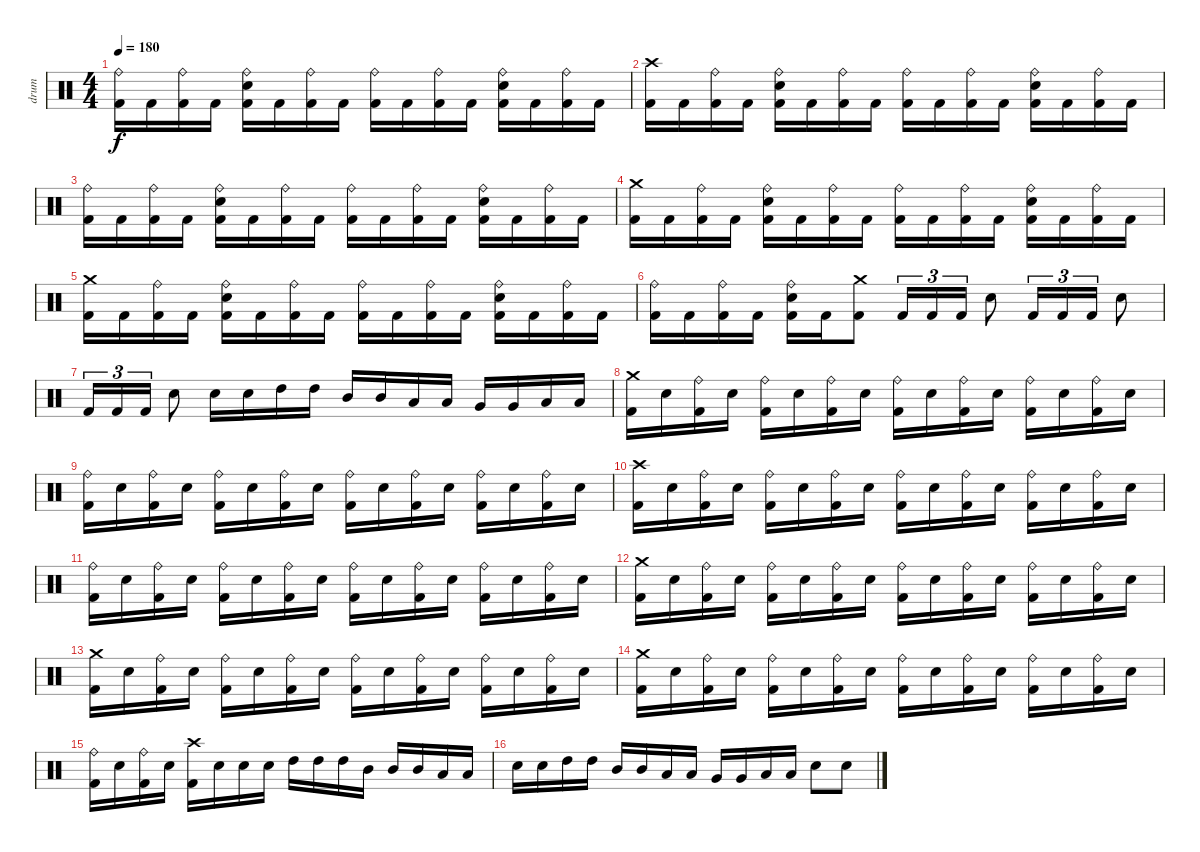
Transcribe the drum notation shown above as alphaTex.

\track ("drum" "drum") {instrument percussion}
\staff {score}
\articulation defaults
\ts (4 4)
\tempo 180
\clef neutral
\ks c
("Ride (bell)" "Kick (hit) 2").16{dy f} "Kick (hit) 2".16 ("Ride (bell)" "Kick (hit) 2").16 "Kick (hit) 2".16 ("Ride (bell)" "Electric Snare (hit)" "Kick (hit) 2").16 "Kick (hit) 2".16 ("Ride (bell)" "Kick (hit) 2").16 "Kick (hit) 2".16 ("Ride (bell)" "Kick (hit) 2").16 "Kick (hit) 2".16 ("Ride (bell)" "Kick (hit) 2").16 "Kick (hit) 2".16 ("Ride (bell)" "Electric Snare (hit)" "Kick (hit) 2").16 "Kick (hit) 2".16 ("Ride (bell)" "Kick (hit) 2").16 "Kick (hit) 2".16 |
("Crash high (hit)" "Kick (hit) 2").16 "Kick (hit) 2".16 ("Ride (bell)" "Kick (hit) 2").16 "Kick (hit) 2".16 ("Ride (bell)" "Electric Snare (hit)" "Kick (hit) 2").16 "Kick (hit) 2".16 ("Ride (bell)" "Kick (hit) 2").16 "Kick (hit) 2".16 ("Ride (bell)" "Kick (hit) 2").16 "Kick (hit) 2".16 ("Ride (bell)" "Kick (hit) 2").16 "Kick (hit) 2".16 ("Ride (bell)" "Electric Snare (hit)" "Kick (hit) 2").16 "Kick (hit) 2".16 ("Ride (bell)" "Kick (hit) 2").16 "Kick (hit) 2".16 |
("Ride (bell)" "Kick (hit) 2").16 "Kick (hit) 2".16 ("Ride (bell)" "Kick (hit) 2").16 "Kick (hit) 2".16 ("Ride (bell)" "Electric Snare (hit)" "Kick (hit) 2").16 "Kick (hit) 2".16 ("Ride (bell)" "Kick (hit) 2").16 "Kick (hit) 2".16 ("Ride (bell)" "Kick (hit) 2").16 "Kick (hit) 2".16 ("Ride (bell)" "Kick (hit) 2").16 "Kick (hit) 2".16 ("Ride (bell)" "Electric Snare (hit)" "Kick (hit) 2").16 "Kick (hit) 2".16 ("Ride (bell)" "Kick (hit) 2").16 "Kick (hit) 2".16 |
("Crash medium (hit)" "Kick (hit) 2").16 "Kick (hit) 2".16 ("Ride (bell)" "Kick (hit) 2").16 "Kick (hit) 2".16 ("Ride (bell)" "Electric Snare (hit)" "Kick (hit) 2").16 "Kick (hit) 2".16 ("Ride (bell)" "Kick (hit) 2").16 "Kick (hit) 2".16 ("Ride (bell)" "Kick (hit) 2").16 "Kick (hit) 2".16 ("Ride (bell)" "Kick (hit) 2").16 "Kick (hit) 2".16 ("Ride (bell)" "Electric Snare (hit)" "Kick (hit) 2").16 "Kick (hit) 2".16 ("Ride (bell)" "Kick (hit) 2").16 "Kick (hit) 2".16 |
("Crash medium (hit)" "Kick (hit) 2").16 "Kick (hit) 2".16 ("Ride (bell)" "Kick (hit) 2").16 "Kick (hit) 2".16 ("Ride (bell)" "Electric Snare (hit)" "Kick (hit) 2").16 "Kick (hit) 2".16 ("Ride (bell)" "Kick (hit) 2").16 "Kick (hit) 2".16 ("Ride (bell)" "Kick (hit) 2").16 "Kick (hit) 2".16 ("Ride (bell)" "Kick (hit) 2").16 "Kick (hit) 2".16 ("Ride (bell)" "Electric Snare (hit)" "Kick (hit) 2").16 "Kick (hit) 2".16 ("Ride (bell)" "Kick (hit) 2").16 "Kick (hit) 2".16 |
("Ride (bell)" "Kick (hit) 2").16 "Kick (hit) 2".16 ("Ride (bell)" "Kick (hit) 2").16 "Kick (hit) 2".16 ("Ride (bell)" "Electric Snare (hit)" "Kick (hit) 2").16 "Kick (hit) 2".16 ("Crash medium (hit)" "Kick (hit) 2").8 "Kick (hit) 2".16{tu (3 2)} "Kick (hit) 2".16{tu (3 2)} "Kick (hit) 2".16{tu (3 2)} "Electric Snare (hit)".8 "Kick (hit) 2".16{tu (3 2)} "Kick (hit) 2".16{tu (3 2)} "Kick (hit) 2".16{tu (3 2)} "Electric Snare (hit)".8 |
"Kick (hit) 2".16{tu (3 2)} "Kick (hit) 2".16{tu (3 2)} "Kick (hit) 2".16{tu (3 2)} "Electric Snare (hit)".8 "Electric Snare (hit)".16 "Electric Snare (hit)".16 "High Tom (hit)".16 "High Tom (hit)".16 "Mid Tom (hit)".16 "Mid Tom (hit)".16 "Low Tom (hit)".16 "Low Tom (hit)".16 "Very Low Tom (hit)".16 "Very Low Tom (hit)".16 "Low Floor Tom (hit)".16 "Low Floor Tom (hit)".16 |
("Crash medium (hit)" "Kick (hit) 2").16 "Electric Snare (hit)".16 ("Ride (bell)" "Kick (hit) 2").16 "Electric Snare (hit)".16 ("Ride (bell)" "Kick (hit) 2").16 "Electric Snare (hit)".16 ("Ride (bell)" "Kick (hit) 2").16 "Electric Snare (hit)".16 ("Ride (bell)" "Kick (hit) 2").16 "Electric Snare (hit)".16 ("Ride (bell)" "Kick (hit) 2").16 "Electric Snare (hit)".16 ("Ride (bell)" "Kick (hit) 2").16 "Electric Snare (hit)".16 ("Ride (bell)" "Kick (hit) 2").16 "Electric Snare (hit)".16 |
("Ride (bell)" "Kick (hit) 2").16 "Electric Snare (hit)".16 ("Ride (bell)" "Kick (hit) 2").16 "Electric Snare (hit)".16 ("Ride (bell)" "Kick (hit) 2").16 "Electric Snare (hit)".16 ("Ride (bell)" "Kick (hit) 2").16 "Electric Snare (hit)".16 ("Ride (bell)" "Kick (hit) 2").16 "Electric Snare (hit)".16 ("Ride (bell)" "Kick (hit) 2").16 "Electric Snare (hit)".16 ("Ride (bell)" "Kick (hit) 2").16 "Electric Snare (hit)".16 ("Ride (bell)" "Kick (hit) 2").16 "Electric Snare (hit)".16 |
("Crash high (hit)" "Kick (hit) 2").16 "Electric Snare (hit)".16 ("Ride (bell)" "Kick (hit) 2").16 "Electric Snare (hit)".16 ("Ride (bell)" "Kick (hit) 2").16 "Electric Snare (hit)".16 ("Ride (bell)" "Kick (hit) 2").16 "Electric Snare (hit)".16 ("Ride (bell)" "Kick (hit) 2").16 "Electric Snare (hit)".16 ("Ride (bell)" "Kick (hit) 2").16 "Electric Snare (hit)".16 ("Ride (bell)" "Kick (hit) 2").16 "Electric Snare (hit)".16 ("Ride (bell)" "Kick (hit) 2").16 "Electric Snare (hit)".16 |
("Ride (bell)" "Kick (hit) 2").16 "Electric Snare (hit)".16 ("Ride (bell)" "Kick (hit) 2").16 "Electric Snare (hit)".16 ("Ride (bell)" "Kick (hit) 2").16 "Electric Snare (hit)".16 ("Ride (bell)" "Kick (hit) 2").16 "Electric Snare (hit)".16 ("Ride (bell)" "Kick (hit) 2").16 "Electric Snare (hit)".16 ("Ride (bell)" "Kick (hit) 2").16 "Electric Snare (hit)".16 ("Ride (bell)" "Kick (hit) 2").16 "Electric Snare (hit)".16 ("Ride (bell)" "Kick (hit) 2").16 "Electric Snare (hit)".16 |
("Crash medium (hit)" "Kick (hit) 2").16 "Electric Snare (hit)".16 ("Ride (bell)" "Kick (hit) 2").16 "Electric Snare (hit)".16 ("Ride (bell)" "Kick (hit) 2").16 "Electric Snare (hit)".16 ("Ride (bell)" "Kick (hit) 2").16 "Electric Snare (hit)".16 ("Ride (bell)" "Kick (hit) 2").16 "Electric Snare (hit)".16 ("Ride (bell)" "Kick (hit) 2").16 "Electric Snare (hit)".16 ("Ride (bell)" "Kick (hit) 2").16 "Electric Snare (hit)".16 ("Ride (bell)" "Kick (hit) 2").16 "Electric Snare (hit)".16 |
("Crash medium (hit)" "Kick (hit) 2").16 "Electric Snare (hit)".16 ("Ride (bell)" "Kick (hit) 2").16 "Electric Snare (hit)".16 ("Ride (bell)" "Kick (hit) 2").16 "Electric Snare (hit)".16 ("Ride (bell)" "Kick (hit) 2").16 "Electric Snare (hit)".16 ("Ride (bell)" "Kick (hit) 2").16 "Electric Snare (hit)".16 ("Ride (bell)" "Kick (hit) 2").16 "Electric Snare (hit)".16 ("Ride (bell)" "Kick (hit) 2").16 "Electric Snare (hit)".16 ("Ride (bell)" "Kick (hit) 2").16 "Electric Snare (hit)".16 |
("Crash medium (hit)" "Kick (hit) 2").16 "Electric Snare (hit)".16 ("Ride (bell)" "Kick (hit) 2").16 "Electric Snare (hit)".16 ("Ride (bell)" "Kick (hit) 2").16 "Electric Snare (hit)".16 ("Ride (bell)" "Kick (hit) 2").16 "Electric Snare (hit)".16 ("Ride (bell)" "Kick (hit) 2").16 "Electric Snare (hit)".16 ("Ride (bell)" "Kick (hit) 2").16 "Electric Snare (hit)".16 ("Ride (bell)" "Kick (hit) 2").16 "Electric Snare (hit)".16 ("Ride (bell)" "Kick (hit) 2").16 "Electric Snare (hit)".16 |
("Ride (bell)" "Kick (hit) 2").16 "Electric Snare (hit)".16 ("Ride (bell)" "Kick (hit) 2").16 "Electric Snare (hit)".16 ("Crash high (hit)" "Kick (hit) 2").16 "Electric Snare (hit)".16 "Electric Snare (hit)".16 "Electric Snare (hit)".16 "High Tom (hit)".16 "High Tom (hit)".16 "High Tom (hit)".16 "Mid Tom (hit)".16 "Mid Tom (hit)".16 "Mid Tom (hit)".16 "Low Tom (hit)".16 "Low Tom (hit)".16 |
"Electric Snare (hit)".16 "Electric Snare (hit)".16 "High Tom (hit)".16 "High Tom (hit)".16 "Mid Tom (hit)".16 "Mid Tom (hit)".16 "Low Tom (hit)".16 "Low Tom (hit)".16 "Very Low Tom (hit)".16 "Very Low Tom (hit)".16 "Low Floor Tom (hit)".16 "Low Floor Tom (hit)".16 "Electric Snare (hit)".8 "Electric Snare (hit)".8
